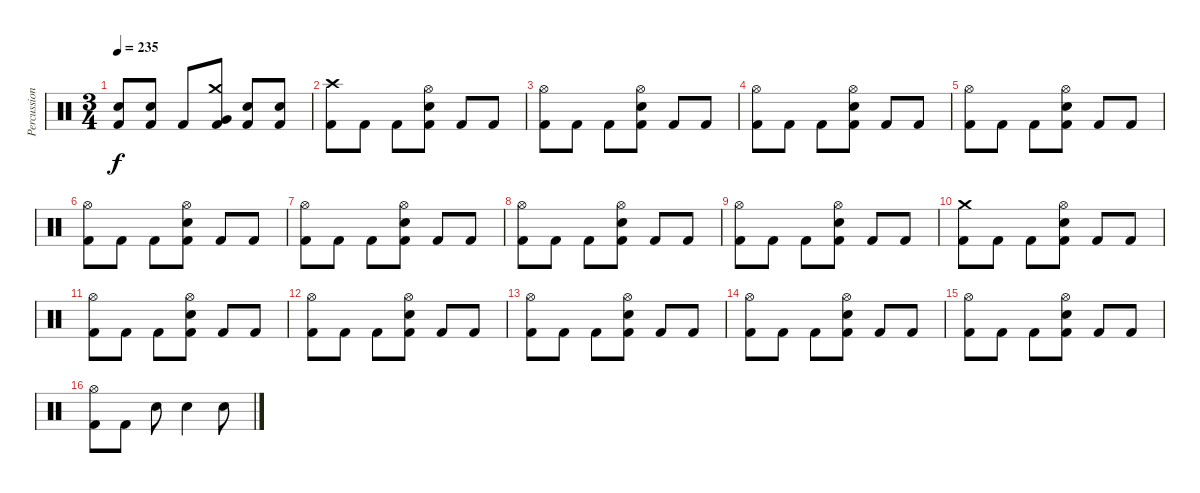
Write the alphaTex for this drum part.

\track ("Percussion" "Percussion") {instrument percussion}
\staff {score}
\articulation defaults
\ts (3 4)
\tempo 235
\clef neutral
\ks c
("Electric Snare (hit)" "Kick (hit) 2").8{dy f} ("Electric Snare (hit)" "Kick (hit) 2").8 "Kick (hit) 2".8 ("Crash medium (hit)" "Very Low Tom (hit)" "Kick (hit) 2").8 ("Electric Snare (hit)" "Kick (hit) 2").8 ("Electric Snare (hit)" "Kick (hit) 2").8 |
("Crash high (hit)" "Kick (hit) 2").8 "Kick (hit) 2".8 "Kick (hit) 2".8 ("Hi-Hat (open)" "Electric Snare (hit)" "Kick (hit) 2").8 "Kick (hit) 2".8 "Kick (hit) 2".8 |
("Hi-Hat (open)" "Kick (hit) 2").8 "Kick (hit) 2".8 "Kick (hit) 2".8 ("Hi-Hat (open)" "Electric Snare (hit)" "Kick (hit) 2").8 "Kick (hit) 2".8 "Kick (hit) 2".8 |
("Hi-Hat (open)" "Kick (hit) 2").8 "Kick (hit) 2".8 "Kick (hit) 2".8 ("Hi-Hat (open)" "Electric Snare (hit)" "Kick (hit) 2").8 "Kick (hit) 2".8 "Kick (hit) 2".8 |
("Hi-Hat (open)" "Kick (hit) 2").8 "Kick (hit) 2".8 "Kick (hit) 2".8 ("Hi-Hat (open)" "Electric Snare (hit)" "Kick (hit) 2").8 "Kick (hit) 2".8 "Kick (hit) 2".8 |
("Hi-Hat (open)" "Kick (hit) 2").8 "Kick (hit) 2".8 "Kick (hit) 2".8 ("Hi-Hat (open)" "Electric Snare (hit)" "Kick (hit) 2").8 "Kick (hit) 2".8 "Kick (hit) 2".8 |
("Hi-Hat (open)" "Kick (hit) 2").8 "Kick (hit) 2".8 "Kick (hit) 2".8 ("Hi-Hat (open)" "Electric Snare (hit)" "Kick (hit) 2").8 "Kick (hit) 2".8 "Kick (hit) 2".8 |
("Hi-Hat (open)" "Kick (hit) 2").8 "Kick (hit) 2".8 "Kick (hit) 2".8 ("Hi-Hat (open)" "Electric Snare (hit)" "Kick (hit) 2").8 "Kick (hit) 2".8 "Kick (hit) 2".8 |
("Hi-Hat (open)" "Kick (hit) 2").8 "Kick (hit) 2".8 "Kick (hit) 2".8 ("Hi-Hat (open)" "Electric Snare (hit)" "Kick (hit) 2").8 "Kick (hit) 2".8 "Kick (hit) 2".8 |
("Crash medium (hit)" "Kick (hit) 2").8 "Kick (hit) 2".8 "Kick (hit) 2".8 ("Hi-Hat (open)" "Electric Snare (hit)" "Kick (hit) 2").8 "Kick (hit) 2".8 "Kick (hit) 2".8 |
("Hi-Hat (open)" "Kick (hit) 2").8 "Kick (hit) 2".8 "Kick (hit) 2".8 ("Hi-Hat (open)" "Electric Snare (hit)" "Kick (hit) 2").8 "Kick (hit) 2".8 "Kick (hit) 2".8 |
("Hi-Hat (open)" "Kick (hit) 2").8 "Kick (hit) 2".8 "Kick (hit) 2".8 ("Hi-Hat (open)" "Electric Snare (hit)" "Kick (hit) 2").8 "Kick (hit) 2".8 "Kick (hit) 2".8 |
("Hi-Hat (open)" "Kick (hit) 2").8 "Kick (hit) 2".8 "Kick (hit) 2".8 ("Hi-Hat (open)" "Electric Snare (hit)" "Kick (hit) 2").8 "Kick (hit) 2".8 "Kick (hit) 2".8 |
("Hi-Hat (open)" "Kick (hit) 2").8 "Kick (hit) 2".8 "Kick (hit) 2".8 ("Hi-Hat (open)" "Electric Snare (hit)" "Kick (hit) 2").8 "Kick (hit) 2".8 "Kick (hit) 2".8 |
("Hi-Hat (open)" "Kick (hit) 2").8 "Kick (hit) 2".8 "Kick (hit) 2".8 ("Hi-Hat (open)" "Electric Snare (hit)" "Kick (hit) 2").8 "Kick (hit) 2".8 "Kick (hit) 2".8 |
("Hi-Hat (open)" "Kick (hit) 2").8 "Kick (hit) 2".8 "Electric Snare (hit)".8 "Electric Snare (hit)".4 "Electric Snare (hit)".8
